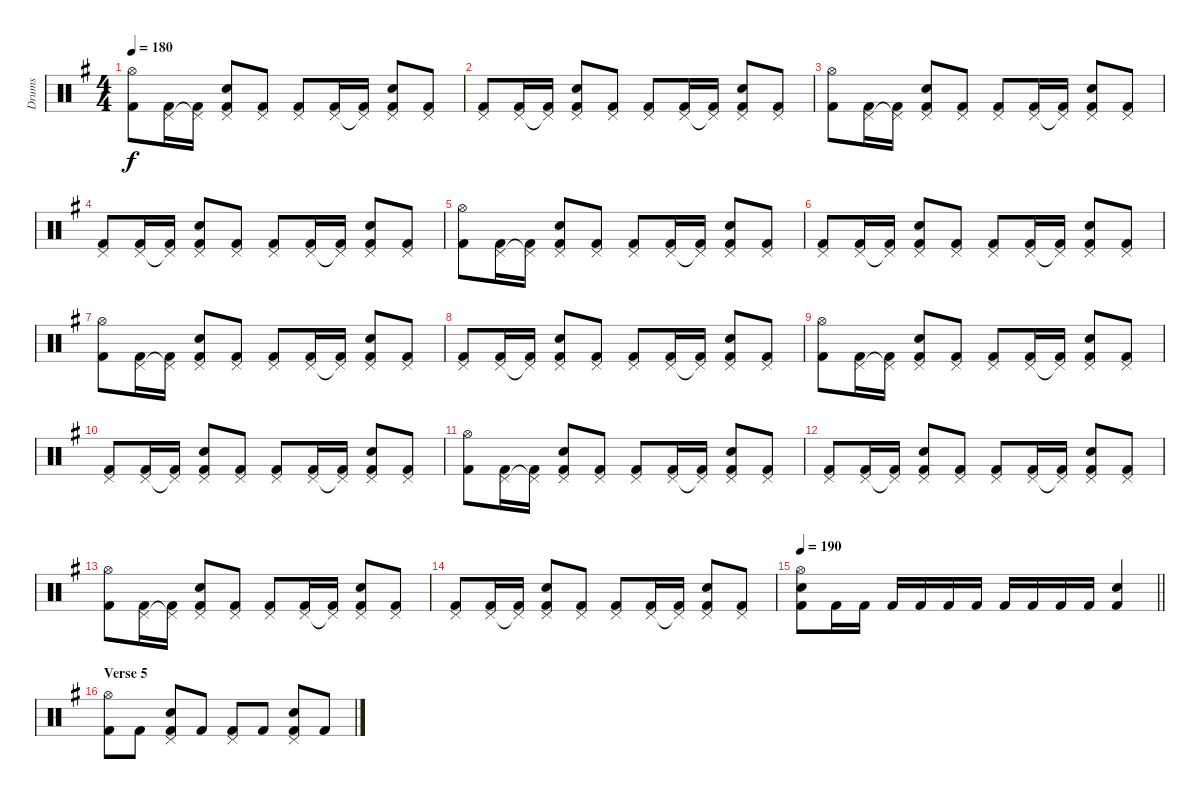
\track ("Drums" "Drums") {instrument percussion}
\staff {score}
\articulation defaults
\ts (4 4)
\tempo 180
\clef neutral
\ks g
("Hi-Hat (open)" "Kick (hit) 2").8{dy f} ("Pedal Hi-Hat (hit)" "Kick (hit) 2").16 ("Pedal Hi-Hat (hit)"{t} "Kick (hit) 2").16 ("Pedal Hi-Hat (hit)" "Snare (hit) 2" "Kick (hit) 2").8 ("Pedal Hi-Hat (hit)" "Kick (hit) 2").8 ("Pedal Hi-Hat (hit)" "Kick (hit) 2").8 ("Pedal Hi-Hat (hit)" "Kick (hit) 2").16 ("Pedal Hi-Hat (hit)"{t} "Kick (hit) 2").16 ("Pedal Hi-Hat (hit)" "Snare (hit) 2" "Kick (hit) 2").8 ("Pedal Hi-Hat (hit)" "Kick (hit) 2").8 |
("Pedal Hi-Hat (hit)" "Kick (hit) 2").8 ("Pedal Hi-Hat (hit)" "Kick (hit) 2").16 ("Pedal Hi-Hat (hit)"{t} "Kick (hit) 2").16 ("Pedal Hi-Hat (hit)" "Snare (hit) 2" "Kick (hit) 2").8 ("Pedal Hi-Hat (hit)" "Kick (hit) 2").8 ("Pedal Hi-Hat (hit)" "Kick (hit) 2").8 ("Pedal Hi-Hat (hit)" "Kick (hit) 2").16 ("Pedal Hi-Hat (hit)"{t} "Kick (hit) 2").16 ("Pedal Hi-Hat (hit)" "Snare (hit) 2" "Kick (hit) 2").8 ("Pedal Hi-Hat (hit)" "Kick (hit) 2").8 |
("Hi-Hat (open)" "Kick (hit) 2").8 ("Pedal Hi-Hat (hit)" "Kick (hit) 2").16 ("Pedal Hi-Hat (hit)"{t} "Kick (hit) 2").16 ("Pedal Hi-Hat (hit)" "Snare (hit) 2" "Kick (hit) 2").8 ("Pedal Hi-Hat (hit)" "Kick (hit) 2").8 ("Pedal Hi-Hat (hit)" "Kick (hit) 2").8 ("Pedal Hi-Hat (hit)" "Kick (hit) 2").16 ("Pedal Hi-Hat (hit)"{t} "Kick (hit) 2").16 ("Pedal Hi-Hat (hit)" "Snare (hit) 2" "Kick (hit) 2").8 ("Pedal Hi-Hat (hit)" "Kick (hit) 2").8 |
("Pedal Hi-Hat (hit)" "Kick (hit) 2").8 ("Pedal Hi-Hat (hit)" "Kick (hit) 2").16 ("Pedal Hi-Hat (hit)"{t} "Kick (hit) 2").16 ("Pedal Hi-Hat (hit)" "Snare (hit) 2" "Kick (hit) 2").8 ("Pedal Hi-Hat (hit)" "Kick (hit) 2").8 ("Pedal Hi-Hat (hit)" "Kick (hit) 2").8 ("Pedal Hi-Hat (hit)" "Kick (hit) 2").16 ("Pedal Hi-Hat (hit)"{t} "Kick (hit) 2").16 ("Pedal Hi-Hat (hit)" "Snare (hit) 2" "Kick (hit) 2").8 ("Pedal Hi-Hat (hit)" "Kick (hit) 2").8 |
("Hi-Hat (open)" "Kick (hit) 2").8 ("Pedal Hi-Hat (hit)" "Kick (hit) 2").16 ("Pedal Hi-Hat (hit)"{t} "Kick (hit) 2").16 ("Pedal Hi-Hat (hit)" "Snare (hit) 2" "Kick (hit) 2").8 ("Pedal Hi-Hat (hit)" "Kick (hit) 2").8 ("Pedal Hi-Hat (hit)" "Kick (hit) 2").8 ("Pedal Hi-Hat (hit)" "Kick (hit) 2").16 ("Pedal Hi-Hat (hit)"{t} "Kick (hit) 2").16 ("Pedal Hi-Hat (hit)" "Snare (hit) 2" "Kick (hit) 2").8 ("Pedal Hi-Hat (hit)" "Kick (hit) 2").8 |
("Pedal Hi-Hat (hit)" "Kick (hit) 2").8 ("Pedal Hi-Hat (hit)" "Kick (hit) 2").16 ("Pedal Hi-Hat (hit)"{t} "Kick (hit) 2").16 ("Pedal Hi-Hat (hit)" "Snare (hit) 2" "Kick (hit) 2").8 ("Pedal Hi-Hat (hit)" "Kick (hit) 2").8 ("Pedal Hi-Hat (hit)" "Kick (hit) 2").8 ("Pedal Hi-Hat (hit)" "Kick (hit) 2").16 ("Pedal Hi-Hat (hit)"{t} "Kick (hit) 2").16 ("Pedal Hi-Hat (hit)" "Snare (hit) 2" "Kick (hit) 2").8 ("Pedal Hi-Hat (hit)" "Kick (hit) 2").8 |
("Hi-Hat (open)" "Kick (hit) 2").8 ("Pedal Hi-Hat (hit)" "Kick (hit) 2").16 ("Pedal Hi-Hat (hit)"{t} "Kick (hit) 2").16 ("Pedal Hi-Hat (hit)" "Snare (hit) 2" "Kick (hit) 2").8 ("Pedal Hi-Hat (hit)" "Kick (hit) 2").8 ("Pedal Hi-Hat (hit)" "Kick (hit) 2").8 ("Pedal Hi-Hat (hit)" "Kick (hit) 2").16 ("Pedal Hi-Hat (hit)"{t} "Kick (hit) 2").16 ("Pedal Hi-Hat (hit)" "Snare (hit) 2" "Kick (hit) 2").8 ("Pedal Hi-Hat (hit)" "Kick (hit) 2").8 |
("Pedal Hi-Hat (hit)" "Kick (hit) 2").8 ("Pedal Hi-Hat (hit)" "Kick (hit) 2").16 ("Pedal Hi-Hat (hit)"{t} "Kick (hit) 2").16 ("Pedal Hi-Hat (hit)" "Snare (hit) 2" "Kick (hit) 2").8 ("Pedal Hi-Hat (hit)" "Kick (hit) 2").8 ("Pedal Hi-Hat (hit)" "Kick (hit) 2").8 ("Pedal Hi-Hat (hit)" "Kick (hit) 2").16 ("Pedal Hi-Hat (hit)"{t} "Kick (hit) 2").16 ("Pedal Hi-Hat (hit)" "Snare (hit) 2" "Kick (hit) 2").8 ("Pedal Hi-Hat (hit)" "Kick (hit) 2").8 |
("Hi-Hat (open)" "Kick (hit) 2").8 ("Pedal Hi-Hat (hit)" "Kick (hit) 2").16 ("Pedal Hi-Hat (hit)"{t} "Kick (hit) 2").16 ("Pedal Hi-Hat (hit)" "Snare (hit) 2" "Kick (hit) 2").8 ("Pedal Hi-Hat (hit)" "Kick (hit) 2").8 ("Pedal Hi-Hat (hit)" "Kick (hit) 2").8 ("Pedal Hi-Hat (hit)" "Kick (hit) 2").16 ("Pedal Hi-Hat (hit)"{t} "Kick (hit) 2").16 ("Pedal Hi-Hat (hit)" "Snare (hit) 2" "Kick (hit) 2").8 ("Pedal Hi-Hat (hit)" "Kick (hit) 2").8 |
("Pedal Hi-Hat (hit)" "Kick (hit) 2").8 ("Pedal Hi-Hat (hit)" "Kick (hit) 2").16 ("Pedal Hi-Hat (hit)"{t} "Kick (hit) 2").16 ("Pedal Hi-Hat (hit)" "Snare (hit) 2" "Kick (hit) 2").8 ("Pedal Hi-Hat (hit)" "Kick (hit) 2").8 ("Pedal Hi-Hat (hit)" "Kick (hit) 2").8 ("Pedal Hi-Hat (hit)" "Kick (hit) 2").16 ("Pedal Hi-Hat (hit)"{t} "Kick (hit) 2").16 ("Pedal Hi-Hat (hit)" "Snare (hit) 2" "Kick (hit) 2").8 ("Pedal Hi-Hat (hit)" "Kick (hit) 2").8 |
("Hi-Hat (open)" "Kick (hit) 2").8 ("Pedal Hi-Hat (hit)" "Kick (hit) 2").16 ("Pedal Hi-Hat (hit)"{t} "Kick (hit) 2").16 ("Pedal Hi-Hat (hit)" "Snare (hit) 2" "Kick (hit) 2").8 ("Pedal Hi-Hat (hit)" "Kick (hit) 2").8 ("Pedal Hi-Hat (hit)" "Kick (hit) 2").8 ("Pedal Hi-Hat (hit)" "Kick (hit) 2").16 ("Pedal Hi-Hat (hit)"{t} "Kick (hit) 2").16 ("Pedal Hi-Hat (hit)" "Snare (hit) 2" "Kick (hit) 2").8 ("Pedal Hi-Hat (hit)" "Kick (hit) 2").8 |
("Pedal Hi-Hat (hit)" "Kick (hit) 2").8 ("Pedal Hi-Hat (hit)" "Kick (hit) 2").16 ("Pedal Hi-Hat (hit)"{t} "Kick (hit) 2").16 ("Pedal Hi-Hat (hit)" "Snare (hit) 2" "Kick (hit) 2").8 ("Pedal Hi-Hat (hit)" "Kick (hit) 2").8 ("Pedal Hi-Hat (hit)" "Kick (hit) 2").8 ("Pedal Hi-Hat (hit)" "Kick (hit) 2").16 ("Pedal Hi-Hat (hit)"{t} "Kick (hit) 2").16 ("Pedal Hi-Hat (hit)" "Snare (hit) 2" "Kick (hit) 2").8 ("Pedal Hi-Hat (hit)" "Kick (hit) 2").8 |
("Hi-Hat (open)" "Kick (hit) 2").8 ("Pedal Hi-Hat (hit)" "Kick (hit) 2").16 ("Pedal Hi-Hat (hit)"{t} "Kick (hit) 2").16 ("Pedal Hi-Hat (hit)" "Snare (hit) 2" "Kick (hit) 2").8 ("Pedal Hi-Hat (hit)" "Kick (hit) 2").8 ("Pedal Hi-Hat (hit)" "Kick (hit) 2").8 ("Pedal Hi-Hat (hit)" "Kick (hit) 2").16 ("Pedal Hi-Hat (hit)"{t} "Kick (hit) 2").16 ("Pedal Hi-Hat (hit)" "Snare (hit) 2" "Kick (hit) 2").8 ("Pedal Hi-Hat (hit)" "Kick (hit) 2").8 |
("Pedal Hi-Hat (hit)" "Kick (hit) 2").8 ("Pedal Hi-Hat (hit)" "Kick (hit) 2").16 ("Pedal Hi-Hat (hit)"{t} "Kick (hit) 2").16 ("Pedal Hi-Hat (hit)" "Snare (hit) 2" "Kick (hit) 2").8 ("Pedal Hi-Hat (hit)" "Kick (hit) 2").8 ("Pedal Hi-Hat (hit)" "Kick (hit) 2").8 ("Pedal Hi-Hat (hit)" "Kick (hit) 2").16 ("Pedal Hi-Hat (hit)"{t} "Kick (hit) 2").16 ("Pedal Hi-Hat (hit)" "Snare (hit) 2" "Kick (hit) 2").8 ("Pedal Hi-Hat (hit)" "Kick (hit) 2").8 |
\tempo 190
\barLineRight lightlight
("Hi-Hat (open)" "Snare (hit) 2" "Kick (hit) 2").8 "Kick (hit) 2".16 "Kick (hit) 2".16 "Kick (hit) 2".16 "Kick (hit) 2".16 "Kick (hit) 2".16 "Kick (hit) 2".16 "Kick (hit) 2".16 "Kick (hit) 2".16 "Kick (hit) 2".16 "Kick (hit) 2".16 ("Snare (hit) 2" "Kick (hit) 2").4 |
\section ("" "Verse 5")
("Hi-Hat (open)" "Kick (hit) 2").8 "Kick (hit) 2".8 ("Pedal Hi-Hat (hit)" "Snare (hit) 2" "Kick (hit) 2").8 "Kick (hit) 2".8 ("Pedal Hi-Hat (hit)" "Kick (hit) 2").8 "Kick (hit) 2".8 ("Pedal Hi-Hat (hit)" "Snare (hit) 2" "Kick (hit) 2").8 "Kick (hit) 2".8
